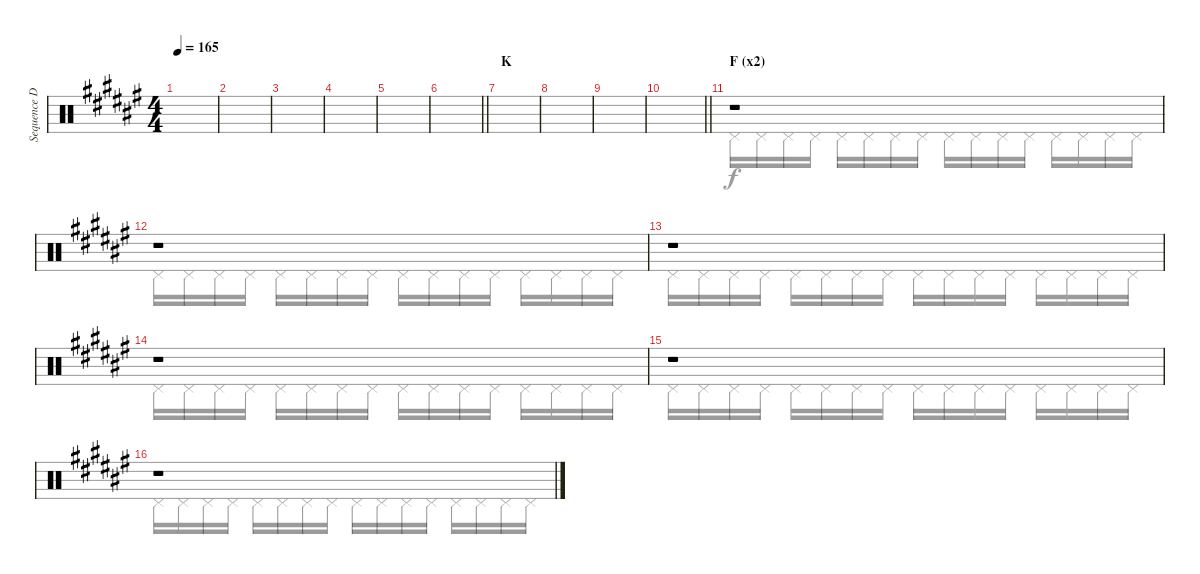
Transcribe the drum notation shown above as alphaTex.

\track ("Sequence Drums" "Sequence D") {instrument percussion}
\staff {score}
\articulation defaults
\voice
\ts (4 4)
\tempo 165
\clef neutral
\ks f#
|
|
|
|
|
\barLineRight lightlight
|
\section ("" "K")
|
|
|
\barLineRight lightlight
|
\section ("" "F (x2)")
r.1 |
r.1 |
r.1 |
r.1 |
r.1 |
r.1
\voice
\clef neutral
\ottava regular
\simile none
\ks f#
|
|
|
|
|
\barLineRight lightlight
|
|
|
|
\barLineRight lightlight
|
"Pedal Hi-Hat (hit)".16 "Pedal Hi-Hat (hit)".16 "Pedal Hi-Hat (hit)".16 "Pedal Hi-Hat (hit)".16 "Pedal Hi-Hat (hit)".16 "Pedal Hi-Hat (hit)".16 "Pedal Hi-Hat (hit)".16 "Pedal Hi-Hat (hit)".16 "Pedal Hi-Hat (hit)".16 "Pedal Hi-Hat (hit)".16 "Pedal Hi-Hat (hit)".16 "Pedal Hi-Hat (hit)".16 "Pedal Hi-Hat (hit)".16 "Pedal Hi-Hat (hit)".16 "Pedal Hi-Hat (hit)".16 "Pedal Hi-Hat (hit)".16 |
"Pedal Hi-Hat (hit)".16 "Pedal Hi-Hat (hit)".16 "Pedal Hi-Hat (hit)".16 "Pedal Hi-Hat (hit)".16 "Pedal Hi-Hat (hit)".16 "Pedal Hi-Hat (hit)".16 "Pedal Hi-Hat (hit)".16 "Pedal Hi-Hat (hit)".16 "Pedal Hi-Hat (hit)".16 "Pedal Hi-Hat (hit)".16 "Pedal Hi-Hat (hit)".16 "Pedal Hi-Hat (hit)".16 "Pedal Hi-Hat (hit)".16 "Pedal Hi-Hat (hit)".16 "Pedal Hi-Hat (hit)".16 "Pedal Hi-Hat (hit)".16 |
"Pedal Hi-Hat (hit)".16 "Pedal Hi-Hat (hit)".16 "Pedal Hi-Hat (hit)".16 "Pedal Hi-Hat (hit)".16 "Pedal Hi-Hat (hit)".16 "Pedal Hi-Hat (hit)".16 "Pedal Hi-Hat (hit)".16 "Pedal Hi-Hat (hit)".16 "Pedal Hi-Hat (hit)".16 "Pedal Hi-Hat (hit)".16 "Pedal Hi-Hat (hit)".16 "Pedal Hi-Hat (hit)".16 "Pedal Hi-Hat (hit)".16 "Pedal Hi-Hat (hit)".16 "Pedal Hi-Hat (hit)".16 "Pedal Hi-Hat (hit)".16 |
"Pedal Hi-Hat (hit)".16 "Pedal Hi-Hat (hit)".16 "Pedal Hi-Hat (hit)".16 "Pedal Hi-Hat (hit)".16 "Pedal Hi-Hat (hit)".16 "Pedal Hi-Hat (hit)".16 "Pedal Hi-Hat (hit)".16 "Pedal Hi-Hat (hit)".16 "Pedal Hi-Hat (hit)".16 "Pedal Hi-Hat (hit)".16 "Pedal Hi-Hat (hit)".16 "Pedal Hi-Hat (hit)".16 "Pedal Hi-Hat (hit)".16 "Pedal Hi-Hat (hit)".16 "Pedal Hi-Hat (hit)".16 "Pedal Hi-Hat (hit)".16 |
"Pedal Hi-Hat (hit)".16 "Pedal Hi-Hat (hit)".16 "Pedal Hi-Hat (hit)".16 "Pedal Hi-Hat (hit)".16 "Pedal Hi-Hat (hit)".16 "Pedal Hi-Hat (hit)".16 "Pedal Hi-Hat (hit)".16 "Pedal Hi-Hat (hit)".16 "Pedal Hi-Hat (hit)".16 "Pedal Hi-Hat (hit)".16 "Pedal Hi-Hat (hit)".16 "Pedal Hi-Hat (hit)".16 "Pedal Hi-Hat (hit)".16 "Pedal Hi-Hat (hit)".16 "Pedal Hi-Hat (hit)".16 "Pedal Hi-Hat (hit)".16 |
"Pedal Hi-Hat (hit)".16 "Pedal Hi-Hat (hit)".16 "Pedal Hi-Hat (hit)".16 "Pedal Hi-Hat (hit)".16 "Pedal Hi-Hat (hit)".16 "Pedal Hi-Hat (hit)".16 "Pedal Hi-Hat (hit)".16 "Pedal Hi-Hat (hit)".16 "Pedal Hi-Hat (hit)".16 "Pedal Hi-Hat (hit)".16 "Pedal Hi-Hat (hit)".16 "Pedal Hi-Hat (hit)".16 "Pedal Hi-Hat (hit)".16 "Pedal Hi-Hat (hit)".16 "Pedal Hi-Hat (hit)".16 "Pedal Hi-Hat (hit)".16
